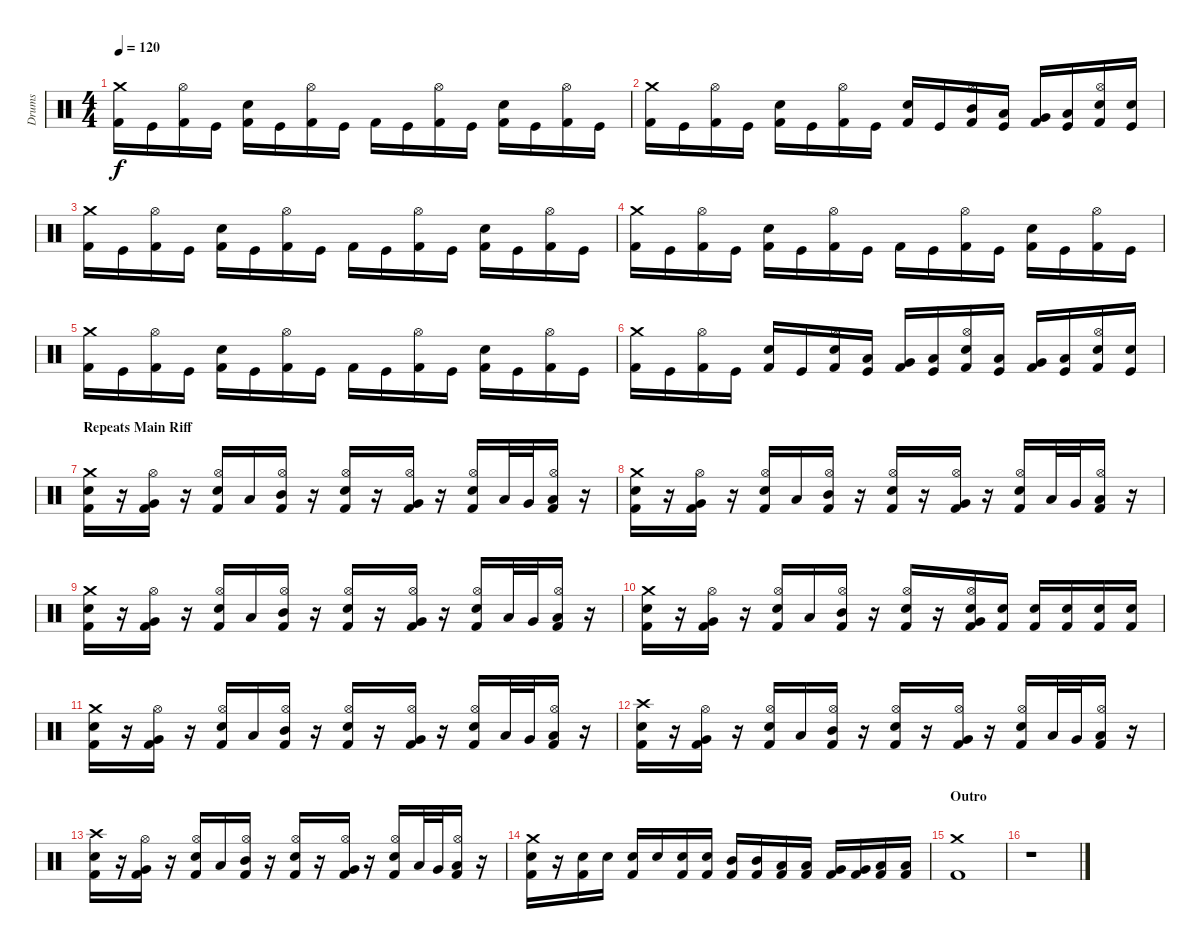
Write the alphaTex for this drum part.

\track ("Drums" "Drums") {instrument percussion}
\staff {score}
\articulation defaults
\ts (4 4)
\tempo 120
\clef neutral
\ks c
("Crash medium (hit)" "Kick (hit) 2").16{dy f} "Kick (hit)".16 ("Hi-Hat (open)" "Kick (hit) 2").16 "Kick (hit)".16 ("Electric Snare (hit)" "Kick (hit) 2").16 "Kick (hit)".16 ("Hi-Hat (open)" "Kick (hit) 2").16 "Kick (hit)".16 "Kick (hit) 2".16 "Kick (hit)".16 ("Hi-Hat (open)" "Kick (hit) 2").16 "Kick (hit)".16 ("Electric Snare (hit)" "Kick (hit) 2").16 "Kick (hit)".16 ("Hi-Hat (open)" "Kick (hit) 2").16 "Kick (hit)".16 |
("Crash medium (hit)" "Kick (hit) 2").16 "Kick (hit)".16 ("Hi-Hat (open)" "Kick (hit) 2").16 "Kick (hit)".16 ("Electric Snare (hit)" "Kick (hit) 2").16 "Kick (hit)".16 ("Hi-Hat (open)" "Kick (hit) 2").16 "Kick (hit)".16 ("Electric Snare (hit)" "Kick (hit) 2").16 "Kick (hit)".16 ("Hi-Hat (open)" "Mid Tom (hit)" "Kick (hit) 2").16 ("Low Tom (hit)" "Kick (hit)").16 ("Very Low Tom (hit)" "Kick (hit) 2").16 ("Low Floor Tom (hit)" "Kick (hit)").16 ("Hi-Hat (open)" "Electric Snare (hit)" "Kick (hit) 2").16 ("Electric Snare (hit)" "Kick (hit)").16 |
("Crash medium (hit)" "Kick (hit) 2").16 "Kick (hit)".16 ("Hi-Hat (open)" "Kick (hit) 2").16 "Kick (hit)".16 ("Electric Snare (hit)" "Kick (hit) 2").16 "Kick (hit)".16 ("Hi-Hat (open)" "Kick (hit) 2").16 "Kick (hit)".16 "Kick (hit) 2".16 "Kick (hit)".16 ("Hi-Hat (open)" "Kick (hit) 2").16 "Kick (hit)".16 ("Electric Snare (hit)" "Kick (hit) 2").16 "Kick (hit)".16 ("Hi-Hat (open)" "Kick (hit) 2").16 "Kick (hit)".16 |
("Crash medium (hit)" "Kick (hit) 2").16 "Kick (hit)".16 ("Hi-Hat (open)" "Kick (hit) 2").16 "Kick (hit)".16 ("Electric Snare (hit)" "Kick (hit) 2").16 "Kick (hit)".16 ("Hi-Hat (open)" "Kick (hit) 2").16 "Kick (hit)".16 "Kick (hit) 2".16 "Kick (hit)".16 ("Hi-Hat (open)" "Kick (hit) 2").16 "Kick (hit)".16 ("Electric Snare (hit)" "Kick (hit) 2").16 "Kick (hit)".16 ("Hi-Hat (open)" "Kick (hit) 2").16 "Kick (hit)".16 |
("Crash medium (hit)" "Kick (hit) 2").16 "Kick (hit)".16 ("Hi-Hat (open)" "Kick (hit) 2").16 "Kick (hit)".16 ("Electric Snare (hit)" "Kick (hit) 2").16 "Kick (hit)".16 ("Hi-Hat (open)" "Kick (hit) 2").16 "Kick (hit)".16 "Kick (hit) 2".16 "Kick (hit)".16 ("Hi-Hat (open)" "Kick (hit) 2").16 "Kick (hit)".16 ("Electric Snare (hit)" "Kick (hit) 2").16 "Kick (hit)".16 ("Hi-Hat (open)" "Kick (hit) 2").16 "Kick (hit)".16 |
("Crash medium (hit)" "Kick (hit) 2").16 "Kick (hit)".16 ("Hi-Hat (open)" "Kick (hit) 2").16 "Kick (hit)".16 ("Electric Snare (hit)" "Kick (hit) 2").16 "Kick (hit)".16 ("Hi-Hat (open)" "Electric Snare (hit)" "Kick (hit) 2").16 ("Low Tom (hit)" "Kick (hit)").16 ("Very Low Tom (hit)" "Kick (hit) 2").16 ("Low Floor Tom (hit)" "Kick (hit)").16 ("Hi-Hat (open)" "Electric Snare (hit)" "Kick (hit) 2").16 ("Low Tom (hit)" "Kick (hit)").16 ("Very Low Tom (hit)" "Kick (hit) 2").16 ("Low Floor Tom (hit)" "Kick (hit)").16 ("Hi-Hat (open)" "Electric Snare (hit)" "Kick (hit) 2").16 ("Electric Snare (hit)" "Kick (hit)").16 |
\section ("" "Repeats Main Riff")
("Crash medium (hit)" "Electric Snare (hit)" "Kick (hit) 2").16 r.16 ("Hi-Hat (open)" "Very Low Tom (hit)" "Kick (hit) 2").16 r.16 ("Hi-Hat (open)" "Electric Snare (hit)" "Kick (hit) 2").16 "Low Tom (hit)".16 ("Hi-Hat (open)" "Mid Tom (hit)" "Kick (hit) 2").16 r.16 ("Hi-Hat (open)" "Electric Snare (hit)" "Kick (hit) 2").16 r.16 ("Hi-Hat (open)" "Very Low Tom (hit)" "Kick (hit) 2").16 r.16 ("Hi-Hat (open)" "Electric Snare (hit)" "Kick (hit) 2").16 "Low Tom (hit)".32 "Very Low Tom (hit)".32 ("Hi-Hat (open)" "Low Floor Tom (hit)" "Kick (hit) 2").16 r.16 |
("Crash medium (hit)" "Electric Snare (hit)" "Kick (hit) 2").16 r.16 ("Hi-Hat (open)" "Very Low Tom (hit)" "Kick (hit) 2").16 r.16 ("Hi-Hat (open)" "Electric Snare (hit)" "Kick (hit) 2").16 "Low Tom (hit)".16 ("Hi-Hat (open)" "Mid Tom (hit)" "Kick (hit) 2").16 r.16 ("Hi-Hat (open)" "Electric Snare (hit)" "Kick (hit) 2").16 r.16 ("Hi-Hat (open)" "Very Low Tom (hit)" "Kick (hit) 2").16 r.16 ("Hi-Hat (open)" "Electric Snare (hit)" "Kick (hit) 2").16 "Low Tom (hit)".32 "Very Low Tom (hit)".32 ("Hi-Hat (open)" "Low Floor Tom (hit)" "Kick (hit) 2").16 r.16 |
("Crash medium (hit)" "Electric Snare (hit)" "Kick (hit) 2").16 r.16 ("Hi-Hat (open)" "Very Low Tom (hit)" "Kick (hit) 2").16 r.16 ("Hi-Hat (open)" "Electric Snare (hit)" "Kick (hit) 2").16 "Low Tom (hit)".16 ("Hi-Hat (open)" "Mid Tom (hit)" "Kick (hit) 2").16 r.16 ("Hi-Hat (open)" "Electric Snare (hit)" "Kick (hit) 2").16 r.16 ("Hi-Hat (open)" "Very Low Tom (hit)" "Kick (hit) 2").16 r.16 ("Hi-Hat (open)" "Electric Snare (hit)" "Kick (hit) 2").16 "Low Tom (hit)".32 "Very Low Tom (hit)".32 ("Hi-Hat (open)" "Low Floor Tom (hit)" "Kick (hit) 2").16 r.16 |
("Crash medium (hit)" "Electric Snare (hit)" "Kick (hit) 2").16 r.16 ("Hi-Hat (open)" "Very Low Tom (hit)" "Kick (hit) 2").16 r.16 ("Hi-Hat (open)" "Electric Snare (hit)" "Kick (hit) 2").16 "Low Tom (hit)".16 ("Hi-Hat (open)" "Mid Tom (hit)" "Kick (hit) 2").16 r.16 ("Hi-Hat (open)" "Electric Snare (hit)" "Kick (hit) 2").16 r.16 ("Hi-Hat (open)" "Very Low Tom (hit)" "Electric Snare (hit)" "Kick (hit) 2").16 ("Electric Snare (hit)" "Kick (hit) 2").16 ("Electric Snare (hit)" "Kick (hit) 2").16 ("Electric Snare (hit)" "Kick (hit) 2").16 ("Electric Snare (hit)" "Kick (hit) 2").16 ("Electric Snare (hit)" "Kick (hit) 2").16 |
("Crash medium (hit)" "Electric Snare (hit)" "Kick (hit) 2").16 r.16 ("Hi-Hat (open)" "Very Low Tom (hit)" "Kick (hit) 2").16 r.16 ("Hi-Hat (open)" "Electric Snare (hit)" "Kick (hit) 2").16 "Low Tom (hit)".16 ("Hi-Hat (open)" "Mid Tom (hit)" "Kick (hit) 2").16 r.16 ("Hi-Hat (open)" "Electric Snare (hit)" "Kick (hit) 2").16 r.16 ("Hi-Hat (open)" "Very Low Tom (hit)" "Kick (hit) 2").16 r.16 ("Hi-Hat (open)" "Electric Snare (hit)" "Kick (hit) 2").16 "Low Tom (hit)".32 "Very Low Tom (hit)".32 ("Hi-Hat (open)" "Low Floor Tom (hit)" "Kick (hit) 2").16 r.16 |
("Crash high (hit)" "Electric Snare (hit)" "Kick (hit) 2").16 r.16 ("Hi-Hat (open)" "Very Low Tom (hit)" "Kick (hit) 2").16 r.16 ("Hi-Hat (open)" "Electric Snare (hit)" "Kick (hit) 2").16 "Low Tom (hit)".16 ("Hi-Hat (open)" "Mid Tom (hit)" "Kick (hit) 2").16 r.16 ("Hi-Hat (open)" "Electric Snare (hit)" "Kick (hit) 2").16 r.16 ("Hi-Hat (open)" "Very Low Tom (hit)" "Kick (hit) 2").16 r.16 ("Hi-Hat (open)" "Electric Snare (hit)" "Kick (hit) 2").16 "Low Tom (hit)".32 "Very Low Tom (hit)".32 ("Hi-Hat (open)" "Low Floor Tom (hit)" "Kick (hit) 2").16 r.16 |
("Crash high (hit)" "Electric Snare (hit)" "Kick (hit) 2").16 r.16 ("Hi-Hat (open)" "Very Low Tom (hit)" "Kick (hit) 2").16 r.16 ("Hi-Hat (open)" "Electric Snare (hit)" "Kick (hit) 2").16 "Low Tom (hit)".16 ("Hi-Hat (open)" "Mid Tom (hit)" "Kick (hit) 2").16 r.16 ("Hi-Hat (open)" "Electric Snare (hit)" "Kick (hit) 2").16 r.16 ("Hi-Hat (open)" "Very Low Tom (hit)" "Kick (hit) 2").16 r.16 ("Hi-Hat (open)" "Electric Snare (hit)" "Kick (hit) 2").16 "Low Tom (hit)".32 "Very Low Tom (hit)".32 ("Hi-Hat (open)" "Low Floor Tom (hit)" "Kick (hit) 2").16 r.16 |
("Crash medium (hit)" "Electric Snare (hit)" "Kick (hit) 2").16 r.16 ("Electric Snare (hit)" "Kick (hit) 2").16 "Electric Snare (hit)".16 ("Electric Snare (hit)" "Kick (hit) 2").16 "Electric Snare (hit)".16 ("Electric Snare (hit)" "Kick (hit) 2").16 ("Electric Snare (hit)" "Kick (hit) 2").16 ("Mid Tom (hit)" "Kick (hit) 2").16 ("Mid Tom (hit)" "Kick (hit) 2").16 ("Low Tom (hit)" "Kick (hit) 2").16 ("Low Tom (hit)" "Kick (hit) 2").16 ("Very Low Tom (hit)" "Kick (hit) 2").16 ("Very Low Tom (hit)" "Kick (hit) 2").16 ("Low Floor Tom (hit)" "Kick (hit) 2").16 ("Low Floor Tom (hit)" "Kick (hit) 2").16 |
\section ("" "Outro")
("Crash medium (hit)" "Kick (hit) 2").1 |
r.1
